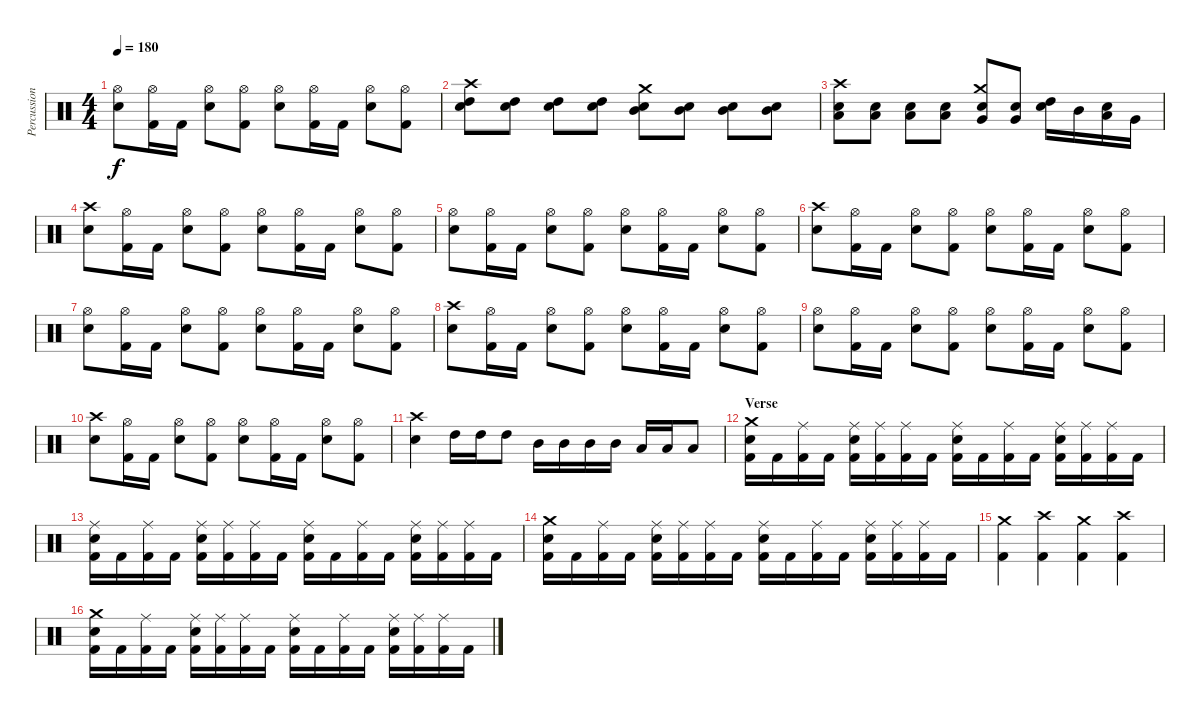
\track ("Percussion" "Percussion") {instrument percussion}
\staff {score}
\articulation defaults
\ts (4 4)
\tempo 180
\clef neutral
\ks c
("Hi-Hat (open)" "Snare (hit) 2").8{dy f} ("Hi-Hat (open)" "Kick (hit) 2").16 "Kick (hit) 2".16 ("Hi-Hat (open)" "Snare (hit) 2").8 ("Hi-Hat (open)" "Kick (hit) 2").8 ("Hi-Hat (open)" "Snare (hit) 2").8 ("Hi-Hat (open)" "Kick (hit) 2").16 "Kick (hit) 2".16 ("Hi-Hat (open)" "Snare (hit) 2").8 ("Hi-Hat (open)" "Kick (hit) 2").8 |
("Crash high (hit)" "Snare (hit) 2" "High Tom (hit)").8 ("Snare (hit) 2" "High Tom (hit)").8 ("Snare (hit) 2" "High Tom (hit)").8 ("Snare (hit) 2" "High Tom (hit)").8 ("Crash medium (hit)" "Snare (hit) 2" "Mid Tom (hit)").8 ("Snare (hit) 2" "Mid Tom (hit)").8 ("Snare (hit) 2" "Mid Tom (hit)").8 ("Snare (hit) 2" "Mid Tom (hit)").8 |
("Crash high (hit)" "Snare (hit) 2" "Low Tom (hit)").8 ("Snare (hit) 2" "Low Tom (hit)").8 ("Snare (hit) 2" "Low Tom (hit)").8 ("Snare (hit) 2" "Low Tom (hit)").8 ("Crash medium (hit)" "Snare (hit) 2" "Very Low Tom (hit)").8 ("Snare (hit) 2" "Very Low Tom (hit)").8 ("Snare (hit) 2" "High Tom (hit)").16 "Mid Tom (hit)".16 ("Snare (hit) 2" "Low Tom (hit)").16 "Very Low Tom (hit)".16 |
("Crash high (hit)" "Snare (hit) 2").8 ("Hi-Hat (open)" "Kick (hit) 2").16 "Kick (hit) 2".16 ("Hi-Hat (open)" "Snare (hit) 2").8 ("Hi-Hat (open)" "Kick (hit) 2").8 ("Hi-Hat (open)" "Snare (hit) 2").8 ("Hi-Hat (open)" "Kick (hit) 2").16 "Kick (hit) 2".16 ("Hi-Hat (open)" "Snare (hit) 2").8 ("Hi-Hat (open)" "Kick (hit) 2").8 |
("Hi-Hat (open)" "Snare (hit) 2").8 ("Hi-Hat (open)" "Kick (hit) 2").16 "Kick (hit) 2".16 ("Hi-Hat (open)" "Snare (hit) 2").8 ("Hi-Hat (open)" "Kick (hit) 2").8 ("Hi-Hat (open)" "Snare (hit) 2").8 ("Hi-Hat (open)" "Kick (hit) 2").16 "Kick (hit) 2".16 ("Hi-Hat (open)" "Snare (hit) 2").8 ("Hi-Hat (open)" "Kick (hit) 2").8 |
("Crash high (hit)" "Snare (hit) 2").8 ("Hi-Hat (open)" "Kick (hit) 2").16 "Kick (hit) 2".16 ("Hi-Hat (open)" "Snare (hit) 2").8 ("Hi-Hat (open)" "Kick (hit) 2").8 ("Hi-Hat (open)" "Snare (hit) 2").8 ("Hi-Hat (open)" "Kick (hit) 2").16 "Kick (hit) 2".16 ("Hi-Hat (open)" "Snare (hit) 2").8 ("Hi-Hat (open)" "Kick (hit) 2").8 |
("Hi-Hat (open)" "Snare (hit) 2").8 ("Hi-Hat (open)" "Kick (hit) 2").16 "Kick (hit) 2".16 ("Hi-Hat (open)" "Snare (hit) 2").8 ("Hi-Hat (open)" "Kick (hit) 2").8 ("Hi-Hat (open)" "Snare (hit) 2").8 ("Hi-Hat (open)" "Kick (hit) 2").16 "Kick (hit) 2".16 ("Hi-Hat (open)" "Snare (hit) 2").8 ("Hi-Hat (open)" "Kick (hit) 2").8 |
("Crash high (hit)" "Snare (hit) 2").8 ("Hi-Hat (open)" "Kick (hit) 2").16 "Kick (hit) 2".16 ("Hi-Hat (open)" "Snare (hit) 2").8 ("Hi-Hat (open)" "Kick (hit) 2").8 ("Hi-Hat (open)" "Snare (hit) 2").8 ("Hi-Hat (open)" "Kick (hit) 2").16 "Kick (hit) 2".16 ("Hi-Hat (open)" "Snare (hit) 2").8 ("Hi-Hat (open)" "Kick (hit) 2").8 |
("Hi-Hat (open)" "Snare (hit) 2").8 ("Hi-Hat (open)" "Kick (hit) 2").16 "Kick (hit) 2".16 ("Hi-Hat (open)" "Snare (hit) 2").8 ("Hi-Hat (open)" "Kick (hit) 2").8 ("Hi-Hat (open)" "Snare (hit) 2").8 ("Hi-Hat (open)" "Kick (hit) 2").16 "Kick (hit) 2".16 ("Hi-Hat (open)" "Snare (hit) 2").8 ("Hi-Hat (open)" "Kick (hit) 2").8 |
("Crash high (hit)" "Snare (hit) 2").8 ("Hi-Hat (open)" "Kick (hit) 2").16 "Kick (hit) 2".16 ("Hi-Hat (open)" "Snare (hit) 2").8 ("Hi-Hat (open)" "Kick (hit) 2").8 ("Hi-Hat (open)" "Snare (hit) 2").8 ("Hi-Hat (open)" "Kick (hit) 2").16 "Kick (hit) 2".16 ("Hi-Hat (open)" "Snare (hit) 2").8 ("Hi-Hat (open)" "Kick (hit) 2").8 |
("Crash high (hit)" "Snare (hit) 2").4 "High Tom (hit)".16 "High Tom (hit)".16 "High Tom (hit)".8 "Mid Tom (hit)".16 "Mid Tom (hit)".16 "Mid Tom (hit)".16 "Mid Tom (hit)".16 "Low Tom (hit)".16 "Low Tom (hit)".16 "Low Tom (hit)".8 |
\section ("" "Verse")
("Crash medium (hit)" "Snare (hit) 2" "Kick (hit) 2").16 "Kick (hit) 2".16 ("Ride (middle)" "Kick (hit) 2").16 "Kick (hit) 2".16 ("Ride (middle)" "Snare (hit) 2" "Kick (hit) 2").16 ("Ride (middle)" "Kick (hit) 2").16 ("Ride (middle)" "Kick (hit) 2").16 "Kick (hit) 2".16 ("Ride (middle)" "Snare (hit) 2" "Kick (hit) 2").16 "Kick (hit) 2".16 ("Ride (middle)" "Kick (hit) 2").16 "Kick (hit) 2".16 ("Ride (middle)" "Snare (hit) 2" "Kick (hit) 2").16 ("Ride (middle)" "Kick (hit) 2").16 ("Ride (middle)" "Kick (hit) 2").16 "Kick (hit) 2".16 |
("Ride (middle)" "Snare (hit) 2" "Kick (hit) 2").16 "Kick (hit) 2".16 ("Ride (middle)" "Kick (hit) 2").16 "Kick (hit) 2".16 ("Ride (middle)" "Snare (hit) 2" "Kick (hit) 2").16 ("Ride (middle)" "Kick (hit) 2").16 ("Ride (middle)" "Kick (hit) 2").16 "Kick (hit) 2".16 ("Ride (middle)" "Snare (hit) 2" "Kick (hit) 2").16 "Kick (hit) 2".16 ("Ride (middle)" "Kick (hit) 2").16 "Kick (hit) 2".16 ("Ride (middle)" "Snare (hit) 2" "Kick (hit) 2").16 ("Ride (middle)" "Kick (hit) 2").16 ("Ride (middle)" "Kick (hit) 2").16 "Kick (hit) 2".16 |
("Crash medium (hit)" "Snare (hit) 2" "Kick (hit) 2").16 "Kick (hit) 2".16 ("Ride (middle)" "Kick (hit) 2").16 "Kick (hit) 2".16 ("Ride (middle)" "Snare (hit) 2" "Kick (hit) 2").16 ("Ride (middle)" "Kick (hit) 2").16 ("Ride (middle)" "Kick (hit) 2").16 "Kick (hit) 2".16 ("Ride (middle)" "Snare (hit) 2" "Kick (hit) 2").16 "Kick (hit) 2".16 ("Ride (middle)" "Kick (hit) 2").16 "Kick (hit) 2".16 ("Ride (middle)" "Snare (hit) 2" "Kick (hit) 2").16 ("Ride (middle)" "Kick (hit) 2").16 ("Ride (middle)" "Kick (hit) 2").16 "Kick (hit) 2".16 |
("Crash medium (hit)" "Kick (hit) 2").4 ("Crash high (hit)" "Kick (hit) 2").4 ("Crash medium (hit)" "Kick (hit) 2").4 ("Crash high (hit)" "Kick (hit) 2").4 |
("Crash medium (hit)" "Snare (hit) 2" "Kick (hit) 2").16 "Kick (hit) 2".16 ("Ride (middle)" "Kick (hit) 2").16 "Kick (hit) 2".16 ("Ride (middle)" "Snare (hit) 2" "Kick (hit) 2").16 ("Ride (middle)" "Kick (hit) 2").16 ("Ride (middle)" "Kick (hit) 2").16 "Kick (hit) 2".16 ("Ride (middle)" "Snare (hit) 2" "Kick (hit) 2").16 "Kick (hit) 2".16 ("Ride (middle)" "Kick (hit) 2").16 "Kick (hit) 2".16 ("Ride (middle)" "Snare (hit) 2" "Kick (hit) 2").16 ("Ride (middle)" "Kick (hit) 2").16 ("Ride (middle)" "Kick (hit) 2").16 "Kick (hit) 2".16
